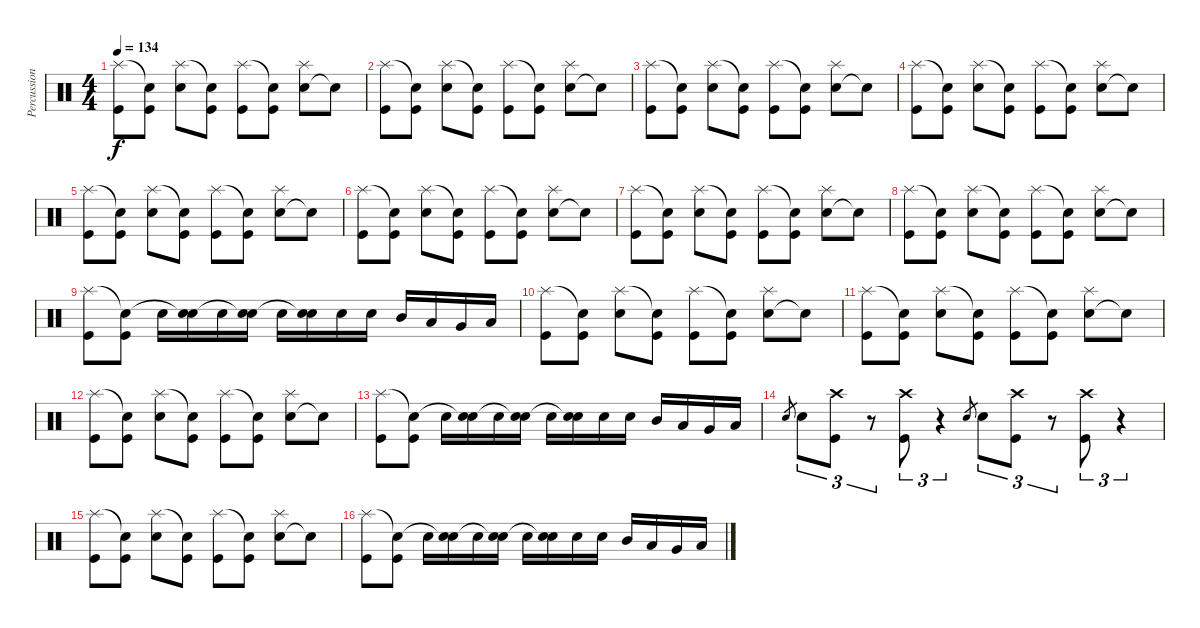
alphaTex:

\track ("Percussion" "Percussion") {instrument percussion}
\staff {score}
\articulation defaults
\ts (4 4)
\tempo 134
\clef neutral
\ks c
("Kick (hit)" "Splash (hit)").8{dy f} ("Kick (hit)" "Snare (hit)"{t}).8 ("Snare (hit) 2" "Splash (hit)").8 ("Kick (hit)" "Snare (hit)"{t}).8 ("Kick (hit)" "Splash (hit)").8 ("Kick (hit)" "Snare (hit)"{t}).8 ("Snare (hit) 2" "Splash (hit)").8 "Snare (hit)"{t}.8 |
("Kick (hit)" "Splash (hit)").8 ("Kick (hit)" "Snare (hit)"{t}).8 ("Snare (hit) 2" "Splash (hit)").8 ("Kick (hit)" "Snare (hit)"{t}).8 ("Kick (hit)" "Splash (hit)").8 ("Kick (hit)" "Snare (hit)"{t}).8 ("Snare (hit) 2" "Splash (hit)").8 "Snare (hit)"{t}.8 |
("Kick (hit)" "Splash (hit)").8 ("Kick (hit)" "Snare (hit)"{t}).8 ("Snare (hit) 2" "Splash (hit)").8 ("Kick (hit)" "Snare (hit)"{t}).8 ("Kick (hit)" "Splash (hit)").8 ("Kick (hit)" "Snare (hit)"{t}).8 ("Snare (hit) 2" "Splash (hit)").8 "Snare (hit)"{t}.8 |
("Kick (hit)" "Splash (hit)").8 ("Kick (hit)" "Snare (hit)"{t}).8 ("Snare (hit) 2" "Splash (hit)").8 ("Kick (hit)" "Snare (hit)"{t}).8 ("Kick (hit)" "Splash (hit)").8 ("Kick (hit)" "Snare (hit)"{t}).8 ("Snare (hit) 2" "Splash (hit)").8 "Snare (hit)"{t}.8 |
("Kick (hit)" "Splash (hit)").8 ("Kick (hit)" "Snare (hit)"{t}).8 ("Snare (hit) 2" "Splash (hit)").8 ("Kick (hit)" "Snare (hit)"{t}).8 ("Kick (hit)" "Splash (hit)").8 ("Kick (hit)" "Snare (hit)"{t}).8 ("Snare (hit) 2" "Splash (hit)").8 "Snare (hit)"{t}.8 |
("Kick (hit)" "Splash (hit)").8 ("Kick (hit)" "Snare (hit)"{t}).8 ("Snare (hit) 2" "Splash (hit)").8 ("Kick (hit)" "Snare (hit)"{t}).8 ("Kick (hit)" "Splash (hit)").8 ("Kick (hit)" "Snare (hit)"{t}).8 ("Snare (hit) 2" "Splash (hit)").8 "Snare (hit)"{t}.8 |
("Kick (hit)" "Splash (hit)").8 ("Kick (hit)" "Snare (hit)"{t}).8 ("Snare (hit) 2" "Splash (hit)").8 ("Kick (hit)" "Snare (hit)"{t}).8 ("Kick (hit)" "Splash (hit)").8 ("Kick (hit)" "Snare (hit)"{t}).8 ("Snare (hit) 2" "Splash (hit)").8 "Snare (hit)"{t}.8 |
("Kick (hit)" "Splash (hit)").8 ("Kick (hit)" "Snare (hit)"{t}).8 ("Snare (hit) 2" "Splash (hit)").8 ("Kick (hit)" "Snare (hit)"{t}).8 ("Kick (hit)" "Splash (hit)").8 ("Kick (hit)" "Snare (hit)"{t}).8 ("Snare (hit) 2" "Splash (hit)").8 "Snare (hit)"{t}.8 |
("Kick (hit)" "Splash (hit)").8 ("Kick (hit)" "Snare (hit)"{t}).8 "Snare (hit) 2".16 ("Snare (hit) 2" "Snare (hit)"{t}).16 "Snare (hit) 2".16 ("Snare (hit) 2" "Snare (hit)"{t}).16 "Snare (hit) 2".16 ("Snare (hit) 2" "Snare (hit)"{t}).16 "Snare (hit) 2".16 "Snare (hit) 2".16 "Mid Tom (hit)".16 "Low Tom (hit)".16 "Very Low Tom (hit)".16 "Low Floor Tom (hit)".16 |
("Kick (hit)" "Splash (hit)").8 ("Kick (hit)" "Snare (hit)"{t}).8 ("Snare (hit) 2" "Splash (hit)").8 ("Kick (hit)" "Snare (hit)"{t}).8 ("Kick (hit)" "Splash (hit)").8 ("Kick (hit)" "Snare (hit)"{t}).8 ("Snare (hit) 2" "Splash (hit)").8 "Snare (hit)"{t}.8 |
("Kick (hit)" "Splash (hit)").8 ("Kick (hit)" "Snare (hit)"{t}).8 ("Snare (hit) 2" "Splash (hit)").8 ("Kick (hit)" "Snare (hit)"{t}).8 ("Kick (hit)" "Splash (hit)").8 ("Kick (hit)" "Snare (hit)"{t}).8 ("Snare (hit) 2" "Splash (hit)").8 "Snare (hit)"{t}.8 |
("Kick (hit)" "Splash (hit)").8 ("Kick (hit)" "Snare (hit)"{t}).8 ("Snare (hit) 2" "Splash (hit)").8 ("Kick (hit)" "Snare (hit)"{t}).8 ("Kick (hit)" "Splash (hit)").8 ("Kick (hit)" "Snare (hit)"{t}).8 ("Snare (hit) 2" "Splash (hit)").8 "Snare (hit)"{t}.8 |
("Kick (hit)" "Splash (hit)").8 ("Kick (hit)" "Snare (hit)"{t}).8 "Snare (hit) 2".16 ("Snare (hit) 2" "Snare (hit)"{t}).16 "Snare (hit) 2".16 ("Snare (hit) 2" "Snare (hit)"{t}).16 "Snare (hit) 2".16 ("Snare (hit) 2" "Snare (hit)"{t}).16 "Snare (hit) 2".16 "Snare (hit) 2".16 "Mid Tom (hit)".16 "Low Tom (hit)".16 "Very Low Tom (hit)".16 "Low Floor Tom (hit)".16 |
"Snare (hit) 2".8{gr} "Snare (hit) 2".8{tu (3 2)} ("Kick (hit)" "Crash high (hit)").8{tu (3 2)} r.8{tu (3 2)} ("Kick (hit)" "Crash high (hit)").8{tu (3 2)} r.4{tu (3 2)} "Snare (hit) 2".8{gr} "Snare (hit) 2".8{tu (3 2)} ("Kick (hit)" "Crash high (hit)").8{tu (3 2)} r.8{tu (3 2)} ("Kick (hit)" "Crash high (hit)").8{tu (3 2)} r.4{tu (3 2)} |
("Kick (hit)" "Splash (hit)").8 ("Kick (hit)" "Snare (hit)"{t}).8 ("Snare (hit) 2" "Splash (hit)").8 ("Kick (hit)" "Snare (hit)"{t}).8 ("Kick (hit)" "Splash (hit)").8 ("Kick (hit)" "Snare (hit)"{t}).8 ("Snare (hit) 2" "Splash (hit)").8 "Snare (hit)"{t}.8 |
("Kick (hit)" "Splash (hit)").8 ("Kick (hit)" "Snare (hit)"{t}).8 "Snare (hit) 2".16 ("Snare (hit) 2" "Snare (hit)"{t}).16 "Snare (hit) 2".16 ("Snare (hit) 2" "Snare (hit)"{t}).16 "Snare (hit) 2".16 ("Snare (hit) 2" "Snare (hit)"{t}).16 "Snare (hit) 2".16 "Snare (hit) 2".16 "Mid Tom (hit)".16 "Low Tom (hit)".16 "Very Low Tom (hit)".16 "Low Floor Tom (hit)".16
